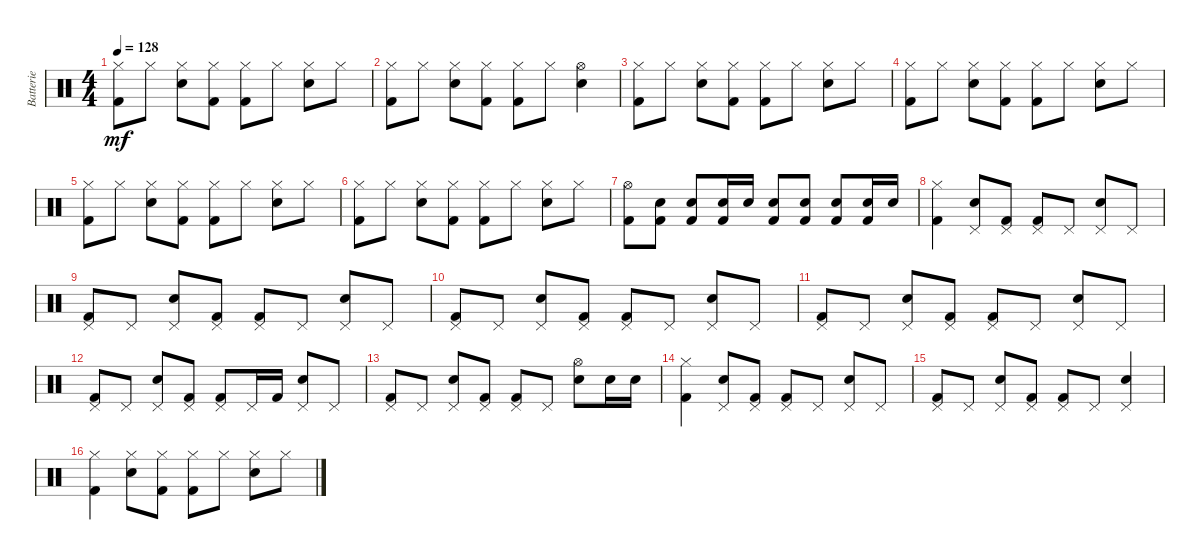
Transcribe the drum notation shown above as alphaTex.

\track ("Batterie" "Batterie") {instrument percussion}
\staff {score}
\articulation defaults
\ts (4 4)
\tempo 128
\clef neutral
\ks c
("Hi-Hat (closed)" "Kick (hit) 2").8{dy mf} "Hi-Hat (closed)".8 ("Hi-Hat (closed)" "Snare (hit) 2").8 ("Hi-Hat (closed)" "Kick (hit) 2").8 ("Hi-Hat (closed)" "Kick (hit) 2").8 "Hi-Hat (closed)".8 ("Hi-Hat (closed)" "Snare (hit) 2").8 "Hi-Hat (closed)".8 |
("Hi-Hat (closed)" "Kick (hit) 2").8 "Hi-Hat (closed)".8 ("Hi-Hat (closed)" "Snare (hit) 2").8 ("Hi-Hat (closed)" "Kick (hit) 2").8 ("Hi-Hat (closed)" "Kick (hit) 2").8 "Hi-Hat (closed)".8 ("Hi-Hat (open)" "Snare (hit) 2").4 |
("Hi-Hat (closed)" "Kick (hit) 2").8 "Hi-Hat (closed)".8 ("Hi-Hat (closed)" "Snare (hit) 2").8 ("Hi-Hat (closed)" "Kick (hit) 2").8 ("Hi-Hat (closed)" "Kick (hit) 2").8 "Hi-Hat (closed)".8 ("Hi-Hat (closed)" "Snare (hit) 2").8 "Hi-Hat (closed)".8 |
("Hi-Hat (closed)" "Kick (hit) 2").8 "Hi-Hat (closed)".8 ("Hi-Hat (closed)" "Snare (hit) 2").8 ("Hi-Hat (closed)" "Kick (hit) 2").8 ("Hi-Hat (closed)" "Kick (hit) 2").8 "Hi-Hat (closed)".8 ("Hi-Hat (closed)" "Snare (hit) 2").8 "Hi-Hat (closed)".8 |
("Hi-Hat (closed)" "Kick (hit) 2").8 "Hi-Hat (closed)".8 ("Hi-Hat (closed)" "Snare (hit) 2").8 ("Hi-Hat (closed)" "Kick (hit) 2").8 ("Hi-Hat (closed)" "Kick (hit) 2").8 "Hi-Hat (closed)".8 ("Hi-Hat (closed)" "Snare (hit) 2").8 "Hi-Hat (closed)".8 |
("Hi-Hat (closed)" "Kick (hit) 2").8 "Hi-Hat (closed)".8 ("Hi-Hat (closed)" "Snare (hit) 2").8 ("Hi-Hat (closed)" "Kick (hit) 2").8 ("Hi-Hat (closed)" "Kick (hit) 2").8 "Hi-Hat (closed)".8 ("Hi-Hat (closed)" "Snare (hit) 2").8 "Hi-Hat (closed)".8 |
("Hi-Hat (open)" "Kick (hit) 2").8 ("Snare (hit) 2" "Kick (hit) 2").8 ("Snare (hit) 2" "Kick (hit) 2").8 ("Snare (hit) 2" "Kick (hit) 2").16 "Snare (hit) 2".16 ("Snare (hit) 2" "Kick (hit) 2").8 ("Snare (hit) 2" "Kick (hit) 2").8 ("Snare (hit) 2" "Kick (hit) 2").8 ("Snare (hit) 2" "Kick (hit) 2").16 "Snare (hit) 2".16 |
("Hi-Hat (closed)" "Kick (hit) 2").4 ("Pedal Hi-Hat (hit)" "Snare (hit) 2").8 ("Pedal Hi-Hat (hit)" "Kick (hit) 2").8 ("Pedal Hi-Hat (hit)" "Kick (hit) 2").8 "Pedal Hi-Hat (hit)".8 ("Pedal Hi-Hat (hit)" "Snare (hit) 2").8 "Pedal Hi-Hat (hit)".8 |
("Pedal Hi-Hat (hit)" "Kick (hit) 2").8 "Pedal Hi-Hat (hit)".8 ("Pedal Hi-Hat (hit)" "Snare (hit) 2").8 ("Pedal Hi-Hat (hit)" "Kick (hit) 2").8 ("Pedal Hi-Hat (hit)" "Kick (hit) 2").8 "Pedal Hi-Hat (hit)".8 ("Pedal Hi-Hat (hit)" "Snare (hit) 2").8 "Pedal Hi-Hat (hit)".8 |
("Pedal Hi-Hat (hit)" "Kick (hit) 2").8 "Pedal Hi-Hat (hit)".8 ("Pedal Hi-Hat (hit)" "Snare (hit) 2").8 ("Pedal Hi-Hat (hit)" "Kick (hit) 2").8 ("Pedal Hi-Hat (hit)" "Kick (hit) 2").8 "Pedal Hi-Hat (hit)".8 ("Pedal Hi-Hat (hit)" "Snare (hit) 2").8 "Pedal Hi-Hat (hit)".8 |
("Pedal Hi-Hat (hit)" "Kick (hit) 2").8 "Pedal Hi-Hat (hit)".8 ("Pedal Hi-Hat (hit)" "Snare (hit) 2").8 ("Pedal Hi-Hat (hit)" "Kick (hit) 2").8 ("Pedal Hi-Hat (hit)" "Kick (hit) 2").8 "Pedal Hi-Hat (hit)".8 ("Pedal Hi-Hat (hit)" "Snare (hit) 2").8 "Pedal Hi-Hat (hit)".8 |
("Pedal Hi-Hat (hit)" "Kick (hit) 2").8 "Pedal Hi-Hat (hit)".8 ("Pedal Hi-Hat (hit)" "Snare (hit) 2").8 ("Pedal Hi-Hat (hit)" "Kick (hit) 2").8 ("Pedal Hi-Hat (hit)" "Kick (hit) 2").8 "Pedal Hi-Hat (hit)".16 "Kick (hit) 2".16 ("Pedal Hi-Hat (hit)" "Snare (hit) 2").8 "Pedal Hi-Hat (hit)".8 |
("Pedal Hi-Hat (hit)" "Kick (hit) 2").8 "Pedal Hi-Hat (hit)".8 ("Pedal Hi-Hat (hit)" "Snare (hit) 2").8 ("Pedal Hi-Hat (hit)" "Kick (hit) 2").8 ("Pedal Hi-Hat (hit)" "Kick (hit) 2").8 "Pedal Hi-Hat (hit)".8 ("Hi-Hat (open)" "Snare (hit) 2").8 "Snare (hit) 2".16 "Snare (hit) 2".16 |
("Hi-Hat (closed)" "Kick (hit) 2").4 ("Pedal Hi-Hat (hit)" "Snare (hit) 2").8 ("Pedal Hi-Hat (hit)" "Kick (hit) 2").8 ("Pedal Hi-Hat (hit)" "Kick (hit) 2").8 "Pedal Hi-Hat (hit)".8 ("Pedal Hi-Hat (hit)" "Snare (hit) 2").8 "Pedal Hi-Hat (hit)".8 |
("Pedal Hi-Hat (hit)" "Kick (hit) 2").8 "Pedal Hi-Hat (hit)".8 ("Pedal Hi-Hat (hit)" "Snare (hit) 2").8 ("Pedal Hi-Hat (hit)" "Kick (hit) 2").8 ("Pedal Hi-Hat (hit)" "Kick (hit) 2").8 "Pedal Hi-Hat (hit)".8 ("Pedal Hi-Hat (hit)" "Snare (hit) 2").4 |
("Hi-Hat (closed)" "Kick (hit) 2").4 ("Hi-Hat (closed)" "Snare (hit) 2").8 ("Hi-Hat (closed)" "Kick (hit) 2").8 ("Hi-Hat (closed)" "Kick (hit) 2").8 "Hi-Hat (closed)".8 ("Hi-Hat (closed)" "Snare (hit) 2").8 "Hi-Hat (closed)".8
